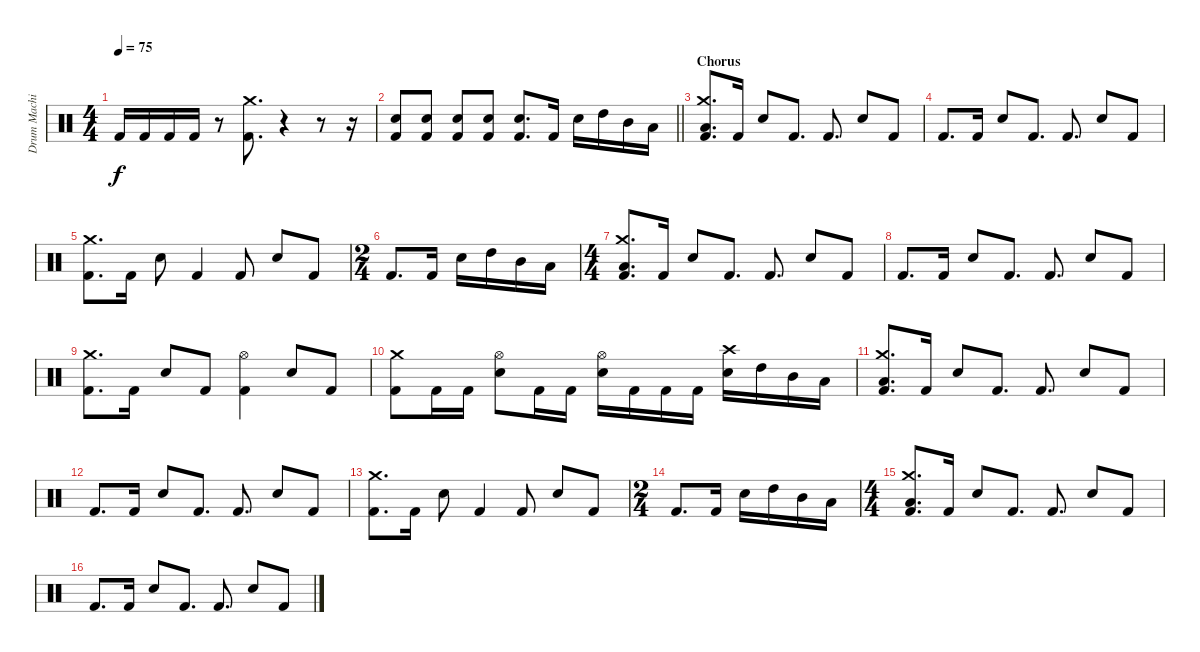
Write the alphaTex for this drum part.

\track ("Drum Machine" "Drum Machi") {mute instrument percussion}
\staff {score}
\articulation defaults
\ts (4 4)
\tempo 75
\clef neutral
\ks c "Kick (hit) 2".16{dy f} "Kick (hit) 2".16 "Kick (hit) 2".16 "Kick (hit) 2".16
r.8 ("Kick (hit) 2" "Crash medium (hit)").8{d} r.4 r.8 r.16 |
\barLineRight lightlight
("Kick (hit) 2" "Electric Snare (hit)").8 ("Kick (hit) 2" "Electric Snare (hit)").8 ("Kick (hit) 2" "Electric Snare (hit)").8 ("Kick (hit) 2" "Electric Snare (hit)").8 ("Kick (hit) 2" "Electric Snare (hit)").8{d} "Kick (hit) 2".16 "Electric Snare (hit)".16 "High Tom (hit)".16 "Mid Tom (hit)".16 "Low Tom (hit)".16 |
\section ("" "Chorus")
("Kick (hit) 2" "Low Floor Tom (hit)" "Crash medium (hit)").8{d} "Kick (hit) 2".16 "Electric Snare (hit)".8 "Kick (hit) 2".8{d} "Kick (hit) 2".8{d} "Electric Snare (hit)".8 "Kick (hit) 2".8 |
"Kick (hit) 2".8{d} "Kick (hit) 2".16 "Electric Snare (hit)".8 "Kick (hit) 2".8{d} "Kick (hit) 2".8{d} "Electric Snare (hit)".8 "Kick (hit) 2".8 |
("Kick (hit) 2" "Crash medium (hit)").8{d} "Kick (hit) 2".16 "Electric Snare (hit)".8 "Kick (hit) 2".4 "Kick (hit) 2".8 "Electric Snare (hit)".8 "Kick (hit) 2".8 |
\ts (2 4)
"Kick (hit) 2".8{d} "Kick (hit) 2".16 "Electric Snare (hit)".16 "High Tom (hit)".16 "Mid Tom (hit)".16 "Low Tom (hit)".16 |
\ts (4 4)
("Kick (hit) 2" "Low Floor Tom (hit)" "Crash medium (hit)").8{d} "Kick (hit) 2".16 "Electric Snare (hit)".8 "Kick (hit) 2".8{d} "Kick (hit) 2".8{d} "Electric Snare (hit)".8 "Kick (hit) 2".8 |
"Kick (hit) 2".8{d} "Kick (hit) 2".16 "Electric Snare (hit)".8 "Kick (hit) 2".8{d} "Kick (hit) 2".8{d} "Electric Snare (hit)".8 "Kick (hit) 2".8 |
("Kick (hit) 2" "Crash medium (hit)").8{d} "Kick (hit) 2".16 "Electric Snare (hit)".8 "Kick (hit) 2".8 ("Kick (hit) 2" "Hi-Hat (open)").4 "Electric Snare (hit)".8 "Kick (hit) 2".8 |
("Kick (hit) 2" "Crash medium (hit)").8 "Kick (hit) 2".16 "Kick (hit) 2".16 ("Electric Snare (hit)" "Hi-Hat (open)").8 "Kick (hit) 2".16 "Kick (hit) 2".16 ("Electric Snare (hit)" "Hi-Hat (open)").16 "Kick (hit) 2".16 "Kick (hit) 2".16 "Kick (hit) 2".16 ("Electric Snare (hit)" "Crash high (hit)").16 "High Tom (hit)".16 "Mid Tom (hit)".16 "Low Tom (hit)".16 |
("Kick (hit) 2" "Low Floor Tom (hit)" "Crash medium (hit)").8{d} "Kick (hit) 2".16 "Electric Snare (hit)".8 "Kick (hit) 2".8{d} "Kick (hit) 2".8{d} "Electric Snare (hit)".8 "Kick (hit) 2".8 |
"Kick (hit) 2".8{d} "Kick (hit) 2".16 "Electric Snare (hit)".8 "Kick (hit) 2".8{d} "Kick (hit) 2".8{d} "Electric Snare (hit)".8 "Kick (hit) 2".8 |
("Kick (hit) 2" "Crash medium (hit)").8{d} "Kick (hit) 2".16 "Electric Snare (hit)".8 "Kick (hit) 2".4 "Kick (hit) 2".8 "Electric Snare (hit)".8 "Kick (hit) 2".8 |
\ts (2 4)
"Kick (hit) 2".8{d} "Kick (hit) 2".16 "Electric Snare (hit)".16 "High Tom (hit)".16 "Mid Tom (hit)".16 "Low Tom (hit)".16 |
\ts (4 4)
("Kick (hit) 2" "Low Floor Tom (hit)" "Crash medium (hit)").8{d} "Kick (hit) 2".16 "Electric Snare (hit)".8 "Kick (hit) 2".8{d} "Kick (hit) 2".8{d} "Electric Snare (hit)".8 "Kick (hit) 2".8 |
"Kick (hit) 2".8{d} "Kick (hit) 2".16 "Electric Snare (hit)".8 "Kick (hit) 2".8{d} "Kick (hit) 2".8{d} "Electric Snare (hit)".8 "Kick (hit) 2".8
